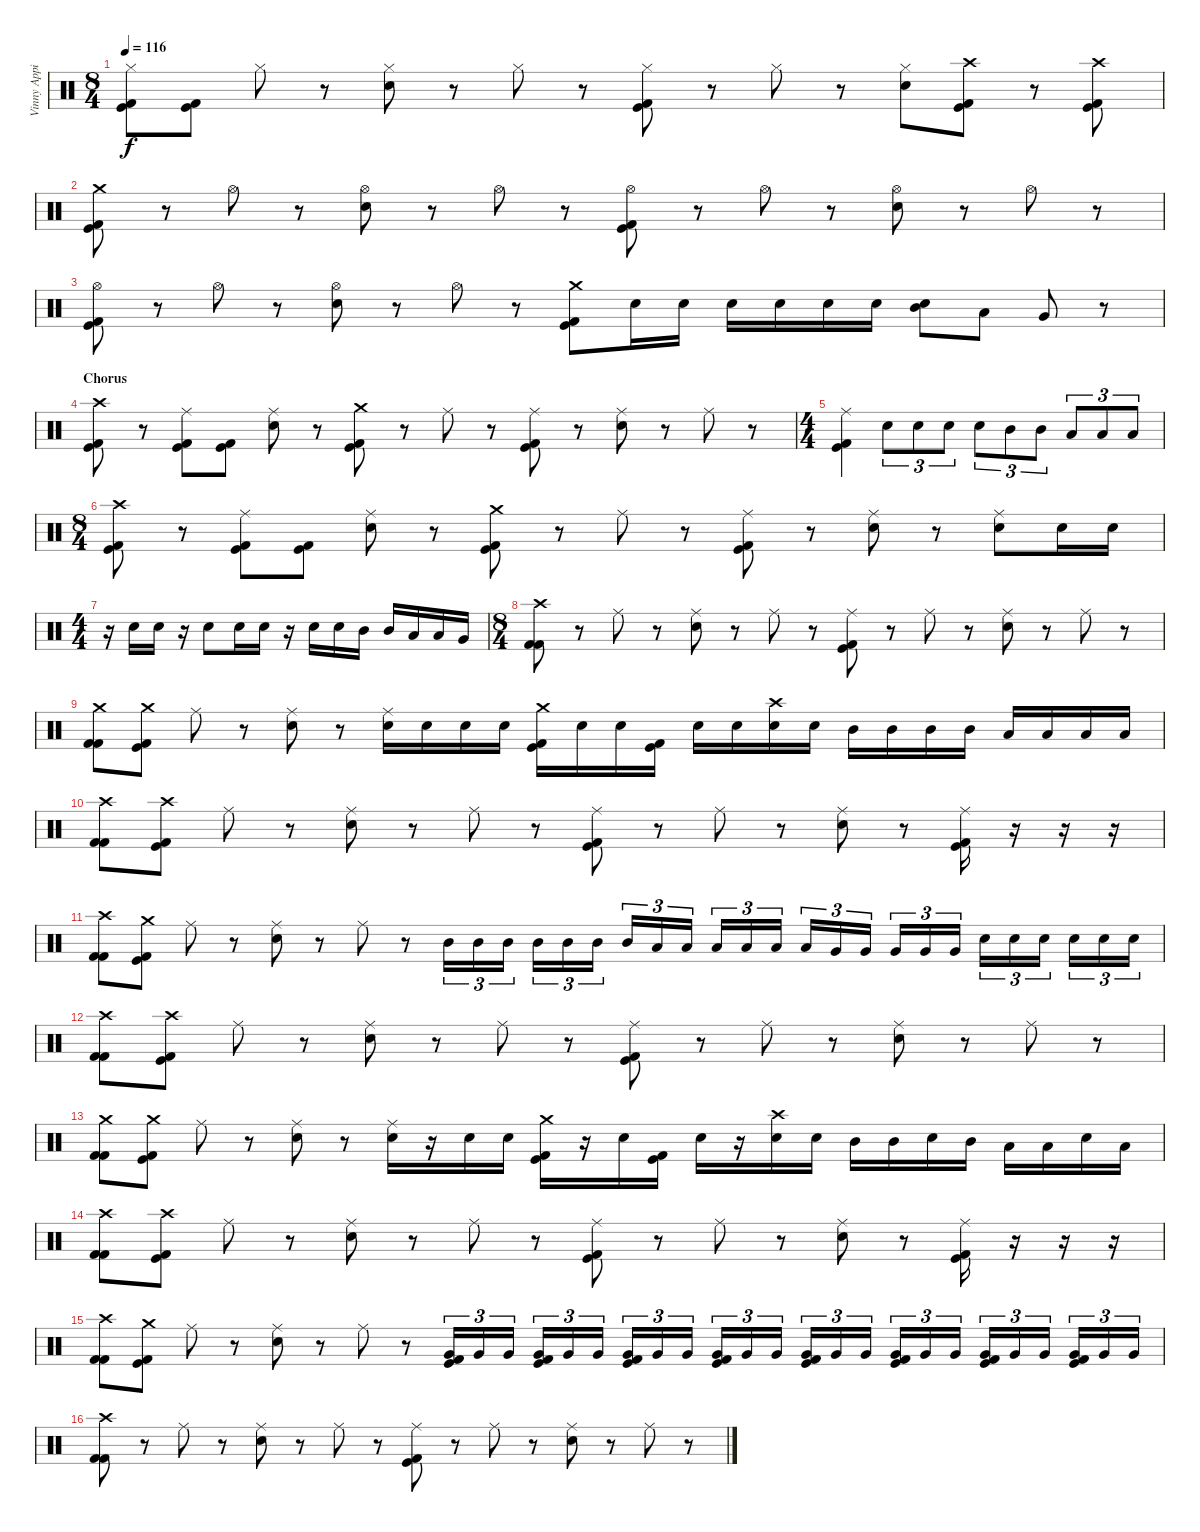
\track ("Vinny Appice" "Vinny Appi") {instrument percussion}
\staff {score}
\articulation defaults
\ts (8 4)
\tempo 116
\clef neutral
\ks c
("Hi-Hat (closed)" "Kick (hit)" "Kick (hit) 2").8{dy f} ("Kick (hit)" "Kick (hit) 2").8 "Hi-Hat (closed)".8 r.8 ("Hi-Hat (closed)" "Snare (hit) 2").8 r.8 "Hi-Hat (closed)".8 r.8 ("Hi-Hat (closed)" "Kick (hit)" "Kick (hit) 2").8 r.8 "Hi-Hat (closed)".8 r.8 ("Hi-Hat (closed)" "Snare (hit) 2").8 ("Crash high (hit)" "Kick (hit)" "Kick (hit) 2").8 r.8 ("Crash high (hit)" "Kick (hit)" "Kick (hit) 2").8 |
("Crash medium (hit)" "Kick (hit)" "Kick (hit) 2").8 r.8 "Hi-Hat (open)".8 r.8 ("Hi-Hat (open)" "Snare (hit) 2").8 r.8 "Hi-Hat (open)".8 r.8 ("Hi-Hat (open)" "Kick (hit)" "Kick (hit) 2").8 r.8 "Hi-Hat (open)".8 r.8 ("Hi-Hat (open)" "Snare (hit) 2").8 r.8 "Hi-Hat (open)".8 r.8 |
("Hi-Hat (open)" "Kick (hit)" "Kick (hit) 2").8 r.8 "Hi-Hat (open)".8 r.8 ("Hi-Hat (open)" "Snare (hit) 2").8 r.8 "Hi-Hat (open)".8 r.8 ("Crash medium (hit)" "Kick (hit)" "Kick (hit) 2").8 "Snare (hit) 2".16 "Snare (hit) 2".16 "Snare (hit) 2".16 "Snare (hit) 2".16 "Snare (hit) 2".16 "Snare (hit) 2".16 ("Mid Tom (hit)" "Snare (hit) 2").8 "Low Tom (hit)".8 "Very Low Tom (hit)".8 r.8 |
\section ("" "Chorus")
("Crash high (hit)" "Kick (hit)" "Kick (hit) 2").8 r.8 ("Ride (middle)" "Kick (hit)" "Kick (hit) 2").8 ("Kick (hit)" "Kick (hit) 2").8 ("Ride (middle)" "Snare (hit) 2").8 r.8 ("Crash medium (hit)" "Kick (hit)" "Kick (hit) 2").8 r.8 "Ride (middle)".8 r.8 ("Ride (middle)" "Kick (hit)" "Kick (hit) 2").8 r.8 ("Ride (middle)" "Snare (hit) 2").8 r.8 "Ride (middle)".8 r.8 |
\ts (4 4)
("Ride (middle)" "Kick (hit)" "Kick (hit) 2").4 "Snare (hit) 2".8{tu (3 2)} "Snare (hit) 2".8{tu (3 2)} "Snare (hit) 2".8{tu (3 2)} "Snare (hit) 2".8{tu (3 2)} "Mid Tom (hit)".8{tu (3 2)} "Mid Tom (hit)".8{tu (3 2)} "Low Tom (hit)".8{tu (3 2)} "Low Tom (hit)".8{tu (3 2)} "Low Tom (hit)".8{tu (3 2)} |
\ts (8 4)
("Crash high (hit)" "Kick (hit)" "Kick (hit) 2").8 r.8 ("Ride (middle)" "Kick (hit)" "Kick (hit) 2").8 ("Kick (hit)" "Kick (hit) 2").8 ("Ride (middle)" "Snare (hit) 2").8 r.8 ("Crash medium (hit)" "Kick (hit)" "Kick (hit) 2").8 r.8 "Ride (middle)".8 r.8 ("Ride (middle)" "Kick (hit)" "Kick (hit) 2").8 r.8 ("Ride (middle)" "Snare (hit) 2").8 r.8 ("Ride (middle)" "Snare (hit) 2").8 "Snare (hit) 2".16 "Snare (hit) 2".16 |
\ts (4 4)
r.16 "Snare (hit) 2".16 "Snare (hit) 2".16 r.16 "Snare (hit) 2".8 "Snare (hit) 2".16 "Snare (hit) 2".16 r.16 "Snare (hit) 2".16 "Snare (hit) 2".16 "Mid Tom (hit)".16 "Mid Tom (hit)".16 "Low Tom (hit)".16 "Low Tom (hit)".16 "Very Low Tom (hit)".16 |
\ts (8 4)
("Crash high (hit)" "Kick (hit) 2" "Kick (hit) 2").8 r.8 "Ride (middle)".8 r.8 ("Ride (middle)" "Snare (hit) 2").8 r.8 "Ride (middle)".8 r.8 ("Ride (middle)" "Kick (hit)" "Kick (hit) 2").8 r.8 "Ride (middle)".8 r.8 ("Ride (middle)" "Snare (hit) 2").8 r.8 "Ride (middle)".8 r.8 |
("Crash medium (hit)" "Kick (hit) 2" "Kick (hit) 2").8 ("Crash medium (hit)" "Kick (hit)" "Kick (hit) 2").8 "Ride (middle)".8 r.8 ("Ride (middle)" "Snare (hit) 2").8 r.8 ("Ride (middle)" "Snare (hit) 2").16 "Snare (hit) 2".16 "Snare (hit) 2".16 "Snare (hit) 2".16 ("Crash medium (hit)" "Kick (hit)" "Kick (hit) 2").16 "Snare (hit) 2".16 "Snare (hit) 2".16 ("Kick (hit)" "Kick (hit) 2").16 "Snare (hit) 2".16 "Snare (hit) 2".16 ("Crash high (hit)" "Snare (hit) 2").16 "Snare (hit) 2".16 "Mid Tom (hit)".16 "Mid Tom (hit)".16 "Mid Tom (hit)".16 "Mid Tom (hit)".16 "Low Tom (hit)".16 "Low Tom (hit)".16 "Low Tom (hit)".16 "Low Tom (hit)".16 |
("Crash high (hit)" "Kick (hit) 2" "Kick (hit) 2").8 ("Crash high (hit)" "Kick (hit)" "Kick (hit) 2").8 "Ride (middle)".8 r.8 ("Ride (middle)" "Snare (hit) 2").8 r.8 "Ride (middle)".8 r.8 ("Ride (middle)" "Kick (hit)" "Kick (hit) 2").8 r.8 "Ride (middle)".8 r.8 ("Ride (middle)" "Snare (hit) 2").8 r.8 ("Ride (middle)" "Kick (hit)" "Kick (hit) 2").16 r.16 r.16 r.16 |
("Crash high (hit)" "Kick (hit) 2" "Kick (hit) 2").8 ("Crash medium (hit)" "Kick (hit)" "Kick (hit) 2").8 "Ride (middle)".8 r.8 ("Ride (middle)" "Snare (hit) 2").8 r.8 "Ride (middle)".8 r.8 "Mid Tom (hit)".16{tu (3 2)} "Mid Tom (hit)".16{tu (3 2)} "Mid Tom (hit)".16{tu (3 2)} "Mid Tom (hit)".16{tu (3 2)} "Mid Tom (hit)".16{tu (3 2)} "Mid Tom (hit)".16{tu (3 2)} "Mid Tom (hit)".16{tu (3 2)} "Low Tom (hit)".16{tu (3 2)} "Low Tom (hit)".16{tu (3 2)} "Low Tom (hit)".16{tu (3 2)} "Low Tom (hit)".16{tu (3 2)} "Low Tom (hit)".16{tu (3 2)} "Low Tom (hit)".16{tu (3 2)} "Very Low Tom (hit)".16{tu (3 2)} "Very Low Tom (hit)".16{tu (3 2)} "Very Low Tom (hit)".16{tu (3 2)} "Very Low Tom (hit)".16{tu (3 2)} "Very Low Tom (hit)".16{tu (3 2)} "Snare (hit) 2".16{tu (3 2)} "Snare (hit) 2".16{tu (3 2)} "Snare (hit) 2".16{tu (3 2)} "Snare (hit) 2".16{tu (3 2)} "Snare (hit) 2".16{tu (3 2)} "Snare (hit) 2".16{tu (3 2)} |
("Crash high (hit)" "Kick (hit) 2" "Kick (hit) 2").8 ("Crash high (hit)" "Kick (hit)" "Kick (hit) 2").8 "Ride (middle)".8 r.8 ("Ride (middle)" "Snare (hit) 2").8 r.8 "Ride (middle)".8 r.8 ("Ride (middle)" "Kick (hit)" "Kick (hit) 2").8 r.8 "Ride (middle)".8 r.8 ("Ride (middle)" "Snare (hit) 2").8 r.8 "Ride (middle)".8 r.8 |
("Crash medium (hit)" "Kick (hit) 2" "Kick (hit) 2").8 ("Crash medium (hit)" "Kick (hit)" "Kick (hit) 2").8 "Ride (middle)".8 r.8 ("Ride (middle)" "Snare (hit) 2").8 r.8 ("Ride (middle)" "Snare (hit) 2").16 r.16 "Snare (hit) 2".16 "Snare (hit) 2".16 ("Crash medium (hit)" "Kick (hit)" "Kick (hit) 2").16 r.16 "Snare (hit) 2".16 ("Kick (hit)" "Kick (hit) 2").16 "Snare (hit) 2".16 r.16 ("Crash high (hit)" "Snare (hit) 2").16 "Snare (hit) 2".16 "Mid Tom (hit)".16 "Mid Tom (hit)".16 "Snare (hit) 2".16 "Mid Tom (hit)".16 "Low Tom (hit)".16 "Low Tom (hit)".16 "Snare (hit) 2".16 "Low Tom (hit)".16 |
("Crash high (hit)" "Kick (hit) 2" "Kick (hit) 2").8 ("Crash high (hit)" "Kick (hit)" "Kick (hit) 2").8 "Ride (middle)".8 r.8 ("Ride (middle)" "Snare (hit) 2").8 r.8 "Ride (middle)".8 r.8 ("Ride (middle)" "Kick (hit)" "Kick (hit) 2").8 r.8 "Ride (middle)".8 r.8 ("Ride (middle)" "Snare (hit) 2").8 r.8 ("Ride (middle)" "Kick (hit)" "Kick (hit) 2").16 r.16 r.16 r.16 |
("Crash high (hit)" "Kick (hit) 2" "Kick (hit) 2").8 ("Crash medium (hit)" "Kick (hit)" "Kick (hit) 2").8 "Ride (middle)".8 r.8 ("Ride (middle)" "Snare (hit) 2").8 r.8 "Ride (middle)".8 r.8 ("Very Low Tom (hit)" "Kick (hit)" "Kick (hit) 2").16{tu (3 2)} "Very Low Tom (hit)".16{tu (3 2)} "Very Low Tom (hit)".16{tu (3 2)} ("Very Low Tom (hit)" "Kick (hit)" "Kick (hit) 2").16{tu (3 2)} "Very Low Tom (hit)".16{tu (3 2)} "Very Low Tom (hit)".16{tu (3 2)} ("Very Low Tom (hit)" "Kick (hit)" "Kick (hit) 2").16{tu (3 2)} "Very Low Tom (hit)".16{tu (3 2)} "Very Low Tom (hit)".16{tu (3 2)} ("Very Low Tom (hit)" "Kick (hit)" "Kick (hit) 2").16{tu (3 2)} "Very Low Tom (hit)".16{tu (3 2)} "Very Low Tom (hit)".16{tu (3 2)} ("Very Low Tom (hit)" "Kick (hit)" "Kick (hit) 2").16{tu (3 2)} "Very Low Tom (hit)".16{tu (3 2)} "Very Low Tom (hit)".16{tu (3 2)} ("Very Low Tom (hit)" "Kick (hit)" "Kick (hit) 2").16{tu (3 2)} "Very Low Tom (hit)".16{tu (3 2)} "Very Low Tom (hit)".16{tu (3 2)} ("Very Low Tom (hit)" "Kick (hit)" "Kick (hit) 2").16{tu (3 2)} "Very Low Tom (hit)".16{tu (3 2)} "Very Low Tom (hit)".16{tu (3 2)} ("Very Low Tom (hit)" "Kick (hit)" "Kick (hit) 2").16{tu (3 2)} "Very Low Tom (hit)".16{tu (3 2)} "Very Low Tom (hit)".16{tu (3 2)} |
("Crash high (hit)" "Kick (hit) 2" "Kick (hit) 2").8 r.8 "Ride (middle)".8 r.8 ("Ride (middle)" "Snare (hit) 2").8 r.8 "Ride (middle)".8 r.8 ("Ride (middle)" "Kick (hit)" "Kick (hit) 2").8 r.8 "Ride (middle)".8 r.8 ("Ride (middle)" "Snare (hit) 2").8 r.8 "Ride (middle)".8 r.8
